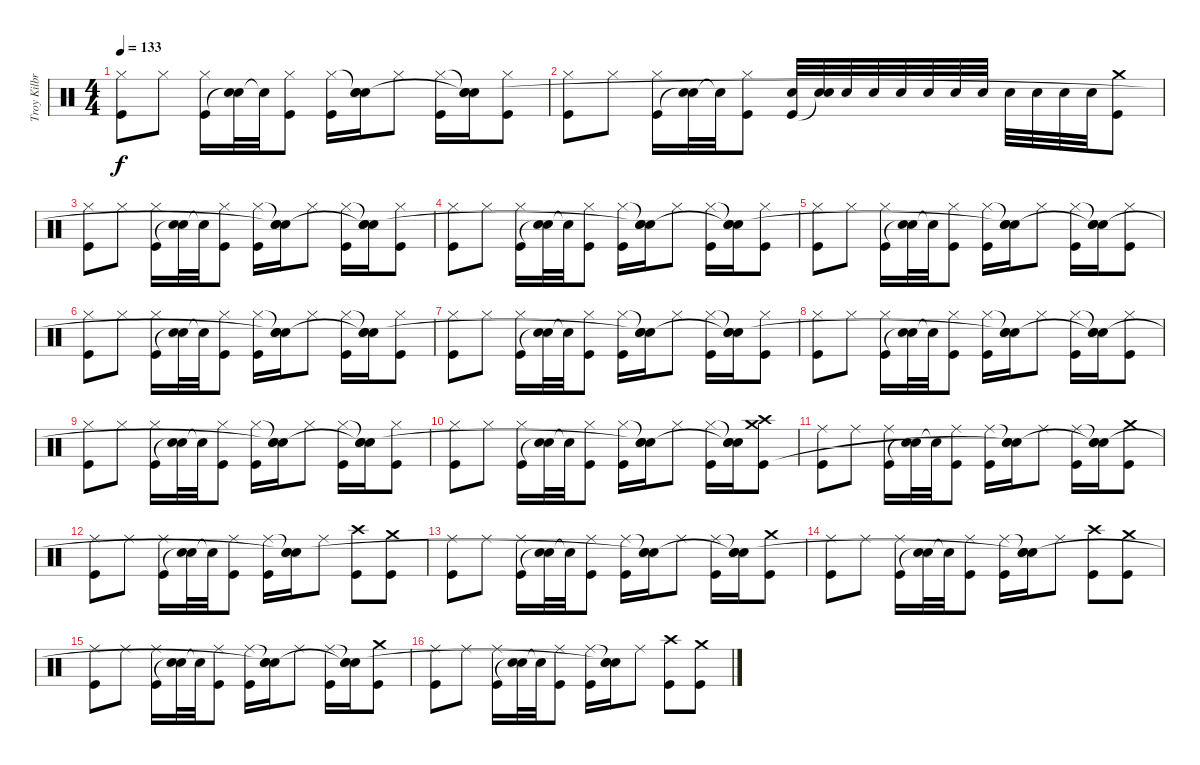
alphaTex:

\track ("Troy Kilbride" "Troy Kilbr") {instrument percussion}
\staff {score}
\articulation defaults
\ts (4 4)
\tempo 133
\clef neutral
\ks c
("Hi-Hat (closed)" "Kick (hit)").8{dy f} "Hi-Hat (closed)".8 ("Hi-Hat (closed)" "Kick (hit)").16 ("Electric Snare (hit)" "Snare (hit)"{t}).32 "Snare (hit)"{t}.32 ("Hi-Hat (closed)" "Kick (hit)").8 ("Hi-Hat (closed)" "Kick (hit)").16 ("Snare (hit)"{t} "Electric Snare (hit)" "Snare (hit)"{t}).16 "Hi-Hat (closed)".8 ("Hi-Hat (closed)" "Kick (hit)").16 ("Snare (hit)"{t} "Electric Snare (hit)" "Snare (hit)"{t}).16 ("Hi-Hat (closed)" "Kick (hit)").8 |
("Hi-Hat (closed)" "Kick (hit)").8 "Hi-Hat (closed)".8 ("Hi-Hat (closed)" "Kick (hit)").16 ("Electric Snare (hit)" "Snare (hit)"{t}).32 "Snare (hit)"{t}.32 ("Hi-Hat (closed)" "Kick (hit)").8 ("Electric Snare (hit)" "Kick (hit)").32 ("Electric Snare (hit)" "Snare (hit)"{t}).32 "Electric Snare (hit)".32 "Electric Snare (hit)".32 "Electric Snare (hit)".32 "Electric Snare (hit)".32 "Electric Snare (hit)".32 "Electric Snare (hit)".32 "Electric Snare (hit)".32 "Electric Snare (hit)".32 "Electric Snare (hit)".32 "Electric Snare (hit)".32 ("Crash medium (hit)" "Kick (hit)").8 |
("Hi-Hat (closed)" "Kick (hit)").8 "Hi-Hat (closed)".8 ("Hi-Hat (closed)" "Kick (hit)").16 ("Electric Snare (hit)" "Snare (hit)"{t}).32 "Snare (hit)"{t}.32 ("Hi-Hat (closed)" "Kick (hit)").8 ("Hi-Hat (closed)" "Kick (hit)").16 ("Snare (hit)"{t} "Electric Snare (hit)" "Snare (hit)"{t}).16 "Hi-Hat (closed)".8 ("Hi-Hat (closed)" "Kick (hit)").16 ("Snare (hit)"{t} "Electric Snare (hit)" "Snare (hit)"{t}).16 ("Hi-Hat (closed)" "Kick (hit)").8 |
("Hi-Hat (closed)" "Kick (hit)").8 "Hi-Hat (closed)".8 ("Hi-Hat (closed)" "Kick (hit)").16 ("Electric Snare (hit)" "Snare (hit)"{t}).32 "Snare (hit)"{t}.32 ("Hi-Hat (closed)" "Kick (hit)").8 ("Hi-Hat (closed)" "Kick (hit)").16 ("Snare (hit)"{t} "Electric Snare (hit)" "Snare (hit)"{t}).16 "Hi-Hat (closed)".8 ("Hi-Hat (closed)" "Kick (hit)").16 ("Snare (hit)"{t} "Electric Snare (hit)" "Snare (hit)"{t}).16 ("Hi-Hat (closed)" "Kick (hit)").8 |
("Hi-Hat (closed)" "Kick (hit)").8 "Hi-Hat (closed)".8 ("Hi-Hat (closed)" "Kick (hit)").16 ("Electric Snare (hit)" "Snare (hit)"{t}).32 "Snare (hit)"{t}.32 ("Hi-Hat (closed)" "Kick (hit)").8 ("Hi-Hat (closed)" "Kick (hit)").16 ("Snare (hit)"{t} "Electric Snare (hit)" "Snare (hit)"{t}).16 "Hi-Hat (closed)".8 ("Hi-Hat (closed)" "Kick (hit)").16 ("Snare (hit)"{t} "Electric Snare (hit)" "Snare (hit)"{t}).16 ("Hi-Hat (closed)" "Kick (hit)").8 |
("Hi-Hat (closed)" "Kick (hit)").8 "Hi-Hat (closed)".8 ("Hi-Hat (closed)" "Kick (hit)").16 ("Electric Snare (hit)" "Snare (hit)"{t}).32 "Snare (hit)"{t}.32 ("Hi-Hat (closed)" "Kick (hit)").8 ("Hi-Hat (closed)" "Kick (hit)").16 ("Snare (hit)"{t} "Electric Snare (hit)" "Snare (hit)"{t}).16 "Hi-Hat (closed)".8 ("Hi-Hat (closed)" "Kick (hit)").16 ("Snare (hit)"{t} "Electric Snare (hit)" "Snare (hit)"{t}).16 ("Hi-Hat (closed)" "Kick (hit)").8 |
("Hi-Hat (closed)" "Kick (hit)").8 "Hi-Hat (closed)".8 ("Hi-Hat (closed)" "Kick (hit)").16 ("Electric Snare (hit)" "Snare (hit)"{t}).32 "Snare (hit)"{t}.32 ("Hi-Hat (closed)" "Kick (hit)").8 ("Hi-Hat (closed)" "Kick (hit)").16 ("Snare (hit)"{t} "Electric Snare (hit)" "Snare (hit)"{t}).16 "Hi-Hat (closed)".8 ("Hi-Hat (closed)" "Kick (hit)").16 ("Snare (hit)"{t} "Electric Snare (hit)" "Snare (hit)"{t}).16 ("Hi-Hat (closed)" "Kick (hit)").8 |
("Hi-Hat (closed)" "Kick (hit)").8 "Hi-Hat (closed)".8 ("Hi-Hat (closed)" "Kick (hit)").16 ("Electric Snare (hit)" "Snare (hit)"{t}).32 "Snare (hit)"{t}.32 ("Hi-Hat (closed)" "Kick (hit)").8 ("Hi-Hat (closed)" "Kick (hit)").16 ("Snare (hit)"{t} "Electric Snare (hit)" "Snare (hit)"{t}).16 "Hi-Hat (closed)".8 ("Hi-Hat (closed)" "Kick (hit)").16 ("Snare (hit)"{t} "Electric Snare (hit)" "Snare (hit)"{t}).16 ("Hi-Hat (closed)" "Kick (hit)").8 |
("Hi-Hat (closed)" "Kick (hit)").8 "Hi-Hat (closed)".8 ("Hi-Hat (closed)" "Kick (hit)").16 ("Electric Snare (hit)" "Snare (hit)"{t}).32 "Snare (hit)"{t}.32 ("Hi-Hat (closed)" "Kick (hit)").8 ("Hi-Hat (closed)" "Kick (hit)").16 ("Snare (hit)"{t} "Electric Snare (hit)" "Snare (hit)"{t}).16 "Hi-Hat (closed)".8 ("Hi-Hat (closed)" "Kick (hit)").16 ("Snare (hit)"{t} "Electric Snare (hit)" "Snare (hit)"{t}).16 ("Hi-Hat (closed)" "Kick (hit)").8 |
("Hi-Hat (closed)" "Kick (hit)").8 "Hi-Hat (closed)".8 ("Hi-Hat (closed)" "Kick (hit)").16 ("Electric Snare (hit)" "Snare (hit)"{t}).32 "Snare (hit)"{t}.32 ("Hi-Hat (closed)" "Kick (hit)").8 ("Hi-Hat (closed)" "Kick (hit)").16 ("Snare (hit)"{t} "Electric Snare (hit)" "Snare (hit)"{t}).16 "Hi-Hat (closed)".8 ("Hi-Hat (closed)" "Kick (hit)").16 ("Snare (hit)"{t} "Electric Snare (hit)" "Snare (hit)"{t}).16 ("Crash high (hit)" "Crash medium (hit)" "Kick (hit)").8 |
("Ride (middle)" "Kick (hit)").8 "Ride (middle)".8 ("Ride (middle)" "Kick (hit)").16 ("Electric Snare (hit)" "Snare (hit)"{t}).32 "Snare (hit)"{t}.32 ("Ride (middle)" "Kick (hit)").8 ("Ride (middle)" "Kick (hit)").16 ("Snare (hit)"{t} "Electric Snare (hit)" "Snare (hit)"{t}).16 "Ride (middle)".8 ("Ride (middle)" "Kick (hit)").16 ("Snare (hit)"{t} "Electric Snare (hit)" "Snare (hit)"{t}).16 ("Crash medium (hit)" "Kick (hit)").8 |
("Ride (middle)" "Kick (hit)").8 "Ride (middle)".8 ("Ride (middle)" "Kick (hit)").16 ("Electric Snare (hit)" "Snare (hit)"{t}).32 "Snare (hit)"{t}.32 ("Ride (middle)" "Kick (hit)").8 ("Ride (middle)" "Kick (hit)").16 ("Snare (hit)"{t} "Electric Snare (hit)" "Snare (hit)"{t}).16 "Ride (middle)".8 ("Crash high (hit)" "Kick (hit)").8 ("Crash medium (hit)" "Kick (hit)").8 |
("Ride (middle)" "Kick (hit)").8 "Ride (middle)".8 ("Ride (middle)" "Kick (hit)").16 ("Electric Snare (hit)" "Snare (hit)"{t}).32 "Snare (hit)"{t}.32 ("Ride (middle)" "Kick (hit)").8 ("Ride (middle)" "Kick (hit)").16 ("Snare (hit)"{t} "Electric Snare (hit)" "Snare (hit)"{t}).16 "Ride (middle)".8 ("Ride (middle)" "Kick (hit)").16 ("Snare (hit)"{t} "Electric Snare (hit)" "Snare (hit)"{t}).16 ("Crash medium (hit)" "Kick (hit)").8 |
("Ride (middle)" "Kick (hit)").8 "Ride (middle)".8 ("Ride (middle)" "Kick (hit)").16 ("Electric Snare (hit)" "Snare (hit)"{t}).32 "Snare (hit)"{t}.32 ("Ride (middle)" "Kick (hit)").8 ("Ride (middle)" "Kick (hit)").16 ("Snare (hit)"{t} "Electric Snare (hit)" "Snare (hit)"{t}).16 "Ride (middle)".8 ("Crash high (hit)" "Kick (hit)").8 ("Crash medium (hit)" "Kick (hit)").8 |
("Ride (middle)" "Kick (hit)").8 "Ride (middle)".8 ("Ride (middle)" "Kick (hit)").16 ("Electric Snare (hit)" "Snare (hit)"{t}).32 "Snare (hit)"{t}.32 ("Ride (middle)" "Kick (hit)").8 ("Ride (middle)" "Kick (hit)").16 ("Snare (hit)"{t} "Electric Snare (hit)" "Snare (hit)"{t}).16 "Ride (middle)".8 ("Ride (middle)" "Kick (hit)").16 ("Snare (hit)"{t} "Electric Snare (hit)" "Snare (hit)"{t}).16 ("Crash medium (hit)" "Kick (hit)").8 |
("Ride (middle)" "Kick (hit)").8 "Ride (middle)".8 ("Ride (middle)" "Kick (hit)").16 ("Electric Snare (hit)" "Snare (hit)"{t}).32 "Snare (hit)"{t}.32 ("Ride (middle)" "Kick (hit)").8 ("Ride (middle)" "Kick (hit)").16 ("Snare (hit)"{t} "Electric Snare (hit)" "Snare (hit)"{t}).16 "Ride (middle)".8 ("Crash high (hit)" "Kick (hit)").8 ("Crash medium (hit)" "Kick (hit)").8
